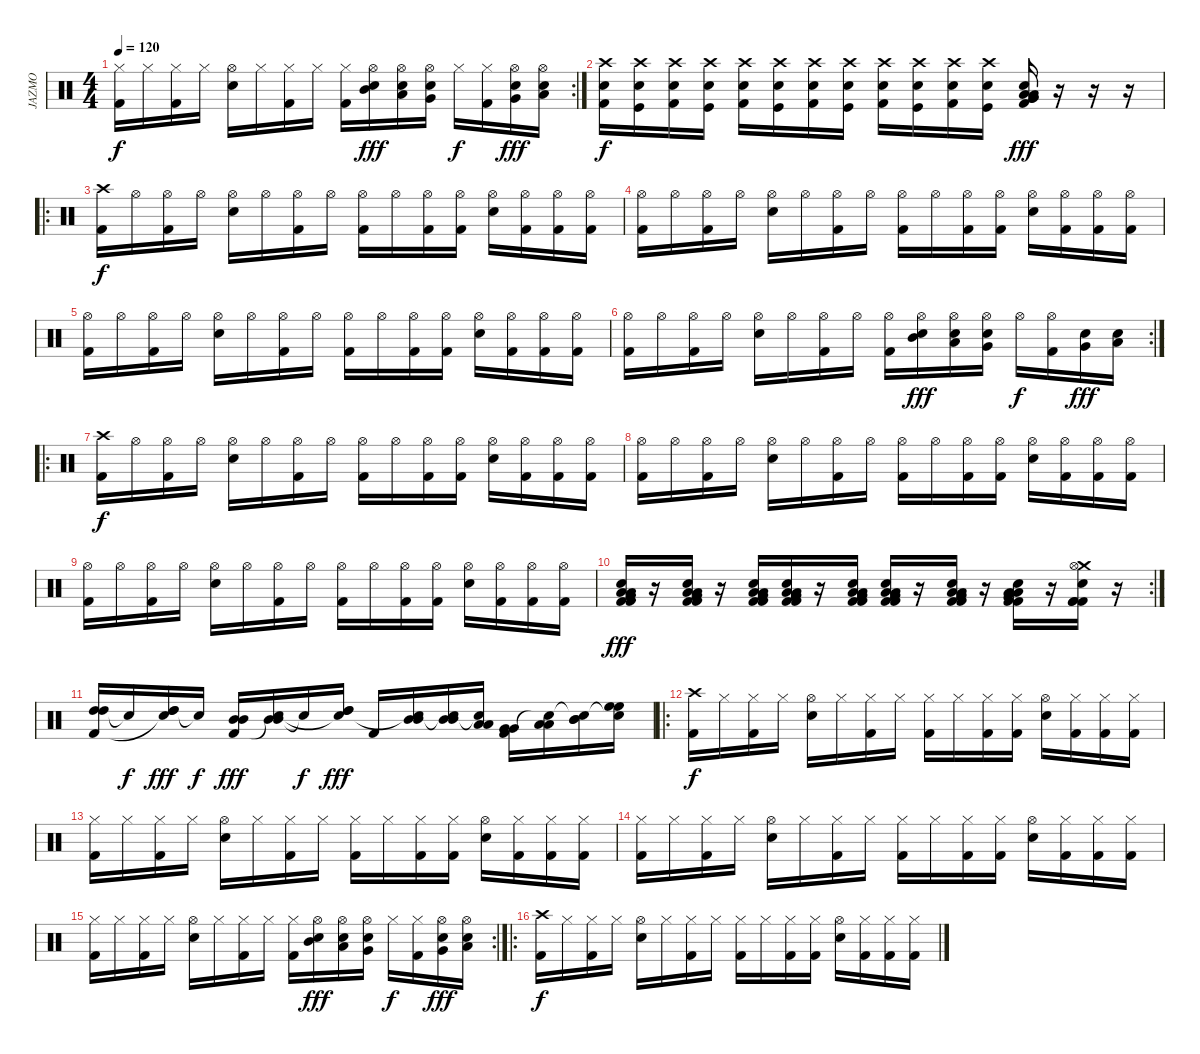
\track ("JAZMO" "JAZMO") {instrument percussion}
\staff {score}
\articulation defaults
\rc 2
\ts (4 4)
\tempo 120
\clef neutral
\ks c
("Hi-Hat (closed)" "Kick (hit) 2").16{dy f} "Hi-Hat (closed)".16 ("Hi-Hat (closed)" "Kick (hit) 2").16 "Hi-Hat (closed)".16 ("Hi-Hat (open)" "Electric Snare (hit)").16 "Hi-Hat (closed)".16 ("Hi-Hat (closed)" "Kick (hit) 2").16 "Hi-Hat (closed)".16 ("Hi-Hat (closed)" "Kick (hit) 2").16 ("Hi-Hat (open)" "Mid Tom (hit)" "Electric Snare (hit)").16{dy fff} ("Hi-Hat (open)" "Low Tom (hit)" "Electric Snare (hit)").16 ("Hi-Hat (open)" "Very Low Tom (hit)" "Electric Snare (hit)").16 "Hi-Hat (closed)".16{dy f} ("Hi-Hat (closed)" "Kick (hit) 2").16 ("Hi-Hat (open)" "Very Low Tom (hit)" "Electric Snare (hit)").16{dy fff} ("Hi-Hat (open)" "Low Floor Tom (hit)" "Electric Snare (hit)").16 |
("Kick (hit) 2" "Crash high (hit)" "Electric Snare (hit)").16{dy f} ("Kick (hit)" "Crash high (hit)" "Electric Snare (hit)").16 ("Kick (hit) 2" "Crash high (hit)" "Electric Snare (hit)").16 ("Kick (hit)" "Crash high (hit)" "Electric Snare (hit)").16 ("Kick (hit) 2" "Crash high (hit)" "Electric Snare (hit)").16 ("Kick (hit)" "Crash high (hit)" "Electric Snare (hit)").16 ("Kick (hit) 2" "Crash high (hit)" "Electric Snare (hit)").16 ("Kick (hit)" "Crash high (hit)" "Electric Snare (hit)").16 ("Kick (hit) 2" "Crash high (hit)" "Electric Snare (hit)").16 ("Kick (hit)" "Crash high (hit)" "Electric Snare (hit)").16 ("Kick (hit) 2" "Crash high (hit)" "Electric Snare (hit)").16 ("Kick (hit)" "Crash high (hit)" "Electric Snare (hit)").16 ("Low Floor Tom (hit)" "Very Low Tom (hit)" "Low Floor Tom (hit)" "Kick (hit) 2" "Very Low Tom (hit)" "Electric Snare (hit)").16{dy fff} r.16 r.16 r.16 |
\ro
("Crash high (hit)" "Kick (hit) 2").16{dy f} "Hi-Hat (open)".16 ("Hi-Hat (open)" "Kick (hit) 2").16 "Hi-Hat (open)".16 ("Hi-Hat (open)" "Electric Snare (hit)").16 "Hi-Hat (open)".16 ("Hi-Hat (open)" "Kick (hit) 2").16 "Hi-Hat (open)".16 ("Hi-Hat (open)" "Kick (hit) 2").16 "Hi-Hat (open)".16 ("Hi-Hat (open)" "Kick (hit) 2").16 ("Hi-Hat (open)" "Kick (hit) 2").16 ("Hi-Hat (open)" "Electric Snare (hit)").16 ("Hi-Hat (open)" "Kick (hit) 2").16 ("Hi-Hat (open)" "Kick (hit) 2").16 ("Hi-Hat (open)" "Kick (hit) 2").16 |
("Hi-Hat (open)" "Kick (hit) 2").16 "Hi-Hat (open)".16 ("Hi-Hat (open)" "Kick (hit) 2").16 "Hi-Hat (open)".16 ("Hi-Hat (open)" "Electric Snare (hit)").16 "Hi-Hat (open)".16 ("Hi-Hat (open)" "Kick (hit) 2").16 "Hi-Hat (open)".16 ("Hi-Hat (open)" "Kick (hit) 2").16 "Hi-Hat (open)".16 ("Hi-Hat (open)" "Kick (hit) 2").16 ("Hi-Hat (open)" "Kick (hit) 2").16 ("Hi-Hat (open)" "Electric Snare (hit)").16 ("Hi-Hat (open)" "Kick (hit) 2").16 ("Hi-Hat (open)" "Kick (hit) 2").16 ("Hi-Hat (open)" "Kick (hit) 2").16 |
("Hi-Hat (open)" "Kick (hit) 2").16 "Hi-Hat (open)".16 ("Hi-Hat (open)" "Kick (hit) 2").16 "Hi-Hat (open)".16 ("Hi-Hat (open)" "Electric Snare (hit)").16 "Hi-Hat (open)".16 ("Hi-Hat (open)" "Kick (hit) 2").16 "Hi-Hat (open)".16 ("Hi-Hat (open)" "Kick (hit) 2").16 "Hi-Hat (open)".16 ("Hi-Hat (open)" "Kick (hit) 2").16 ("Hi-Hat (open)" "Kick (hit) 2").16 ("Hi-Hat (open)" "Electric Snare (hit)").16 ("Hi-Hat (open)" "Kick (hit) 2").16 ("Hi-Hat (open)" "Kick (hit) 2").16 ("Hi-Hat (open)" "Kick (hit) 2").16 |
\rc 2
("Hi-Hat (open)" "Kick (hit) 2").16 "Hi-Hat (open)".16 ("Hi-Hat (open)" "Kick (hit) 2").16 "Hi-Hat (open)".16 ("Hi-Hat (open)" "Electric Snare (hit)").16 "Hi-Hat (open)".16 ("Hi-Hat (open)" "Kick (hit) 2").16 "Hi-Hat (open)".16 ("Hi-Hat (open)" "Kick (hit) 2").16 ("Hi-Hat (open)" "Mid Tom (hit)" "Electric Snare (hit)").16{dy fff} ("Hi-Hat (open)" "Low Tom (hit)" "Electric Snare (hit)").16 ("Hi-Hat (open)" "Very Low Tom (hit)" "Electric Snare (hit)").16 "Hi-Hat (open)".16{dy f} ("Hi-Hat (open)" "Kick (hit) 2").16 ("Very Low Tom (hit)" "Electric Snare (hit)").16{dy fff} ("Low Floor Tom (hit)" "Electric Snare (hit)").16 |
\ro
("Crash high (hit)" "Kick (hit) 2").16{dy f} "Hi-Hat (open)".16 ("Hi-Hat (open)" "Kick (hit) 2").16 "Hi-Hat (open)".16 ("Hi-Hat (open)" "Electric Snare (hit)").16 "Hi-Hat (open)".16 ("Hi-Hat (open)" "Kick (hit) 2").16 "Hi-Hat (open)".16 ("Hi-Hat (open)" "Kick (hit) 2").16 "Hi-Hat (open)".16 ("Hi-Hat (open)" "Kick (hit) 2").16 ("Hi-Hat (open)" "Kick (hit) 2").16 ("Hi-Hat (open)" "Electric Snare (hit)").16 ("Hi-Hat (open)" "Kick (hit) 2").16 ("Hi-Hat (open)" "Kick (hit) 2").16 ("Hi-Hat (open)" "Kick (hit) 2").16 |
("Hi-Hat (open)" "Kick (hit) 2").16 "Hi-Hat (open)".16 ("Hi-Hat (open)" "Kick (hit) 2").16 "Hi-Hat (open)".16 ("Hi-Hat (open)" "Electric Snare (hit)").16 "Hi-Hat (open)".16 ("Hi-Hat (open)" "Kick (hit) 2").16 "Hi-Hat (open)".16 ("Hi-Hat (open)" "Kick (hit) 2").16 "Hi-Hat (open)".16 ("Hi-Hat (open)" "Kick (hit) 2").16 ("Hi-Hat (open)" "Kick (hit) 2").16 ("Hi-Hat (open)" "Electric Snare (hit)").16 ("Hi-Hat (open)" "Kick (hit) 2").16 ("Hi-Hat (open)" "Kick (hit) 2").16 ("Hi-Hat (open)" "Kick (hit) 2").16 |
("Hi-Hat (open)" "Kick (hit) 2").16 "Hi-Hat (open)".16 ("Hi-Hat (open)" "Kick (hit) 2").16 "Hi-Hat (open)".16 ("Hi-Hat (open)" "Electric Snare (hit)").16 "Hi-Hat (open)".16 ("Hi-Hat (open)" "Kick (hit) 2").16 "Hi-Hat (open)".16 ("Hi-Hat (open)" "Kick (hit) 2").16 "Hi-Hat (open)".16 ("Hi-Hat (open)" "Kick (hit) 2").16 ("Hi-Hat (open)" "Kick (hit) 2").16 ("Hi-Hat (open)" "Electric Snare (hit)").16 ("Hi-Hat (open)" "Kick (hit) 2").16 ("Hi-Hat (open)" "Kick (hit) 2").16 ("Hi-Hat (open)" "Kick (hit) 2").16 |
\rc 2
("Kick (hit) 2" "Low Floor Tom (hit)" "Very Low Tom (hit)" "Low Floor Tom (hit)" "Electric Snare (hit)" "Kick (hit) 2").16{dy fff} r.16 ("Kick (hit) 2" "Low Floor Tom (hit)" "Very Low Tom (hit)" "Low Floor Tom (hit)" "Electric Snare (hit)" "Kick (hit) 2").16 r.16 ("Kick (hit) 2" "Low Floor Tom (hit)" "Very Low Tom (hit)" "Low Floor Tom (hit)" "Electric Snare (hit)" "Kick (hit) 2").16 ("Kick (hit) 2" "Low Floor Tom (hit)" "Very Low Tom (hit)" "Low Floor Tom (hit)" "Electric Snare (hit)" "Kick (hit) 2").16 r.16 ("Kick (hit) 2" "Low Floor Tom (hit)" "Very Low Tom (hit)" "Low Floor Tom (hit)" "Electric Snare (hit)" "Kick (hit) 2").16 ("Kick (hit) 2" "Low Floor Tom (hit)" "Very Low Tom (hit)" "Low Floor Tom (hit)" "Electric Snare (hit)" "Kick (hit) 2").16 r.16 ("Kick (hit) 2" "Low Floor Tom (hit)" "Very Low Tom (hit)" "Low Floor Tom (hit)" "Electric Snare (hit)" "Kick (hit) 2").16 r.16 ("Kick (hit) 2" "Low Floor Tom (hit)" "Very Low Tom (hit)" "Low Floor Tom (hit)" "Electric Snare (hit)" "Kick (hit) 2").16 r.16 ("Crash medium (hit)" "Hi-Hat (open)" "Kick (hit) 2" "Kick (hit) 2" "Electric Snare (hit)" "Kick (hit) 2").16 r.16 |
("High Tom (hit)" "High Tom (hit)" "Kick (hit) 2").16 "Snare (hit)"{t}.16{dy f} ("High Tom (hit)" "High Tom (hit)" "Snare (hit)"{t}).16{dy fff} "Snare (hit)"{t}.16{dy f} ("Mid Tom (hit)" "Mid Tom (hit)" "Kick (hit) 2").16{dy fff} ("Mid Tom (hit)" "Mid Tom (hit)" "Snare (hit)"{t}).16 "Snare (hit)"{t}.16{dy f} ("High Tom (hit)" "High Tom (hit)" "Snare (hit)"{t}).16{dy fff} "Kick (hit) 2".16 ("Mid Tom (hit)" "Mid Tom (hit)" "Snare (hit)"{t}).16 ("Mid Tom (hit)" "Mid Tom (hit)" "Snare (hit)"{t}).16 ("Low Tom (hit)" "Low Tom (hit)" "Snare (hit)"{t}).16 ("Very Low Tom (hit)" "Very Low Tom (hit)" "Kick (hit) 2").16 ("Low Tom (hit)" "Low Tom (hit)" "Snare (hit)"{t}).16 ("Mid Tom (hit)" "Mid Tom (hit)" "Snare (hit)"{t}).16 ("High Floor Tom (hit)" "High Floor Tom (hit)" "Snare (hit)"{t}).16 |
\ro
("Crash high (hit)" "Kick (hit) 2").16{dy f} "Hi-Hat (closed)".16 ("Hi-Hat (closed)" "Kick (hit) 2").16 "Hi-Hat (closed)".16 ("Hi-Hat (open)" "Electric Snare (hit)").16 "Hi-Hat (closed)".16 ("Hi-Hat (closed)" "Kick (hit) 2").16 "Hi-Hat (closed)".16 ("Hi-Hat (closed)" "Kick (hit) 2").16 "Hi-Hat (closed)".16 ("Hi-Hat (closed)" "Kick (hit) 2").16 ("Hi-Hat (closed)" "Kick (hit) 2").16 ("Hi-Hat (open)" "Electric Snare (hit)").16 ("Hi-Hat (closed)" "Kick (hit) 2").16 ("Hi-Hat (closed)" "Kick (hit) 2").16 ("Hi-Hat (closed)" "Kick (hit) 2").16 |
("Hi-Hat (closed)" "Kick (hit) 2").16 "Hi-Hat (closed)".16 ("Hi-Hat (closed)" "Kick (hit) 2").16 "Hi-Hat (closed)".16 ("Hi-Hat (open)" "Electric Snare (hit)").16 "Hi-Hat (closed)".16 ("Hi-Hat (closed)" "Kick (hit) 2").16 "Hi-Hat (closed)".16 ("Hi-Hat (closed)" "Kick (hit) 2").16 "Hi-Hat (closed)".16 ("Hi-Hat (closed)" "Kick (hit) 2").16 ("Hi-Hat (closed)" "Kick (hit) 2").16 ("Hi-Hat (open)" "Electric Snare (hit)").16 ("Hi-Hat (closed)" "Kick (hit) 2").16 ("Hi-Hat (closed)" "Kick (hit) 2").16 ("Hi-Hat (closed)" "Kick (hit) 2").16 |
("Hi-Hat (closed)" "Kick (hit) 2").16 "Hi-Hat (closed)".16 ("Hi-Hat (closed)" "Kick (hit) 2").16 "Hi-Hat (closed)".16 ("Hi-Hat (open)" "Electric Snare (hit)").16 "Hi-Hat (closed)".16 ("Hi-Hat (closed)" "Kick (hit) 2").16 "Hi-Hat (closed)".16 ("Hi-Hat (closed)" "Kick (hit) 2").16 "Hi-Hat (closed)".16 ("Hi-Hat (closed)" "Kick (hit) 2").16 ("Hi-Hat (closed)" "Kick (hit) 2").16 ("Hi-Hat (open)" "Electric Snare (hit)").16 ("Hi-Hat (closed)" "Kick (hit) 2").16 ("Hi-Hat (closed)" "Kick (hit) 2").16 ("Hi-Hat (closed)" "Kick (hit) 2").16 |
\rc 2
("Hi-Hat (closed)" "Kick (hit) 2").16 "Hi-Hat (closed)".16 ("Hi-Hat (closed)" "Kick (hit) 2").16 "Hi-Hat (closed)".16 ("Hi-Hat (open)" "Electric Snare (hit)").16 "Hi-Hat (closed)".16 ("Hi-Hat (closed)" "Kick (hit) 2").16 "Hi-Hat (closed)".16 ("Hi-Hat (closed)" "Kick (hit) 2").16 ("Hi-Hat (open)" "Mid Tom (hit)" "Electric Snare (hit)").16{dy fff} ("Hi-Hat (open)" "Low Tom (hit)" "Electric Snare (hit)").16 ("Hi-Hat (open)" "Very Low Tom (hit)" "Electric Snare (hit)").16 "Hi-Hat (closed)".16{dy f} ("Hi-Hat (closed)" "Kick (hit) 2").16 ("Hi-Hat (open)" "Very Low Tom (hit)" "Electric Snare (hit)").16{dy fff} ("Hi-Hat (open)" "Low Floor Tom (hit)" "Electric Snare (hit)").16 |
\ro
("Crash high (hit)" "Kick (hit) 2").16{dy f} "Hi-Hat (closed)".16 ("Hi-Hat (closed)" "Kick (hit) 2").16 "Hi-Hat (closed)".16 ("Hi-Hat (open)" "Electric Snare (hit)").16 "Hi-Hat (closed)".16 ("Hi-Hat (closed)" "Kick (hit) 2").16 "Hi-Hat (closed)".16 ("Hi-Hat (closed)" "Kick (hit) 2").16 "Hi-Hat (closed)".16 ("Hi-Hat (closed)" "Kick (hit) 2").16 ("Hi-Hat (closed)" "Kick (hit) 2").16 ("Hi-Hat (open)" "Electric Snare (hit)").16 ("Hi-Hat (closed)" "Kick (hit) 2").16 ("Hi-Hat (closed)" "Kick (hit) 2").16 ("Hi-Hat (closed)" "Kick (hit) 2").16
